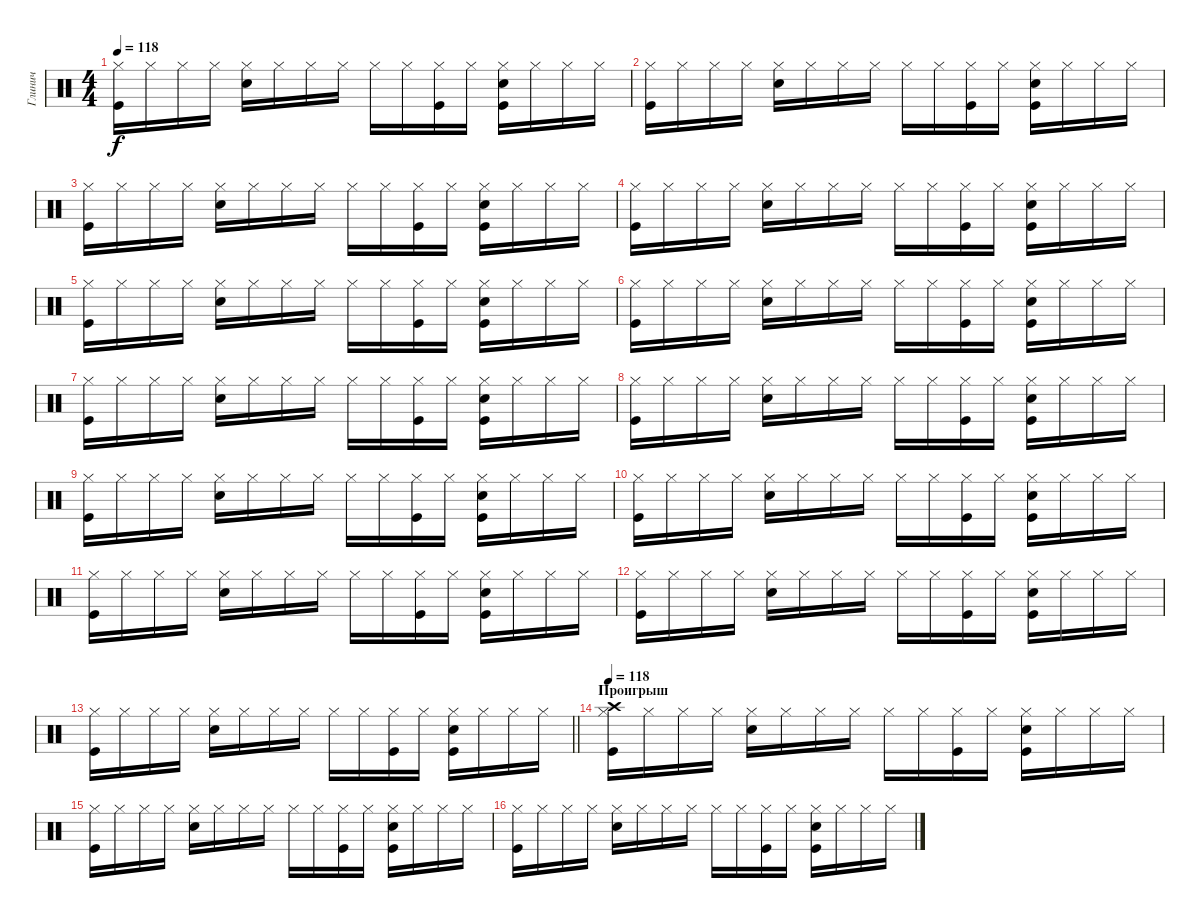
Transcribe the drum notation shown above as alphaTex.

\track ("Глинич" "Глинич") {instrument percussion}
\staff {score}
\articulation defaults
\ts (4 4)
\tempo 118
\clef neutral
\ks c
("Hi-Hat (closed)" "Kick (hit)").16{dy f} "Hi-Hat (closed)".16 "Hi-Hat (closed)".16 "Hi-Hat (closed)".16 ("Hi-Hat (closed)" "Snare (hit) 2").16 "Hi-Hat (closed)".16 "Hi-Hat (closed)".16 "Hi-Hat (closed)".16 "Hi-Hat (closed)".16 "Hi-Hat (closed)".16 ("Hi-Hat (closed)" "Kick (hit)").16 "Hi-Hat (closed)".16 ("Hi-Hat (closed)" "Snare (hit) 2" "Kick (hit)").16 "Hi-Hat (closed)".16 "Hi-Hat (closed)".16 "Hi-Hat (closed)".16 |
("Hi-Hat (closed)" "Kick (hit)").16 "Hi-Hat (closed)".16 "Hi-Hat (closed)".16 "Hi-Hat (closed)".16 ("Hi-Hat (closed)" "Snare (hit) 2").16 "Hi-Hat (closed)".16 "Hi-Hat (closed)".16 "Hi-Hat (closed)".16 "Hi-Hat (closed)".16 "Hi-Hat (closed)".16 ("Hi-Hat (closed)" "Kick (hit)").16 "Hi-Hat (closed)".16 ("Hi-Hat (closed)" "Snare (hit) 2" "Kick (hit)").16 "Hi-Hat (closed)".16 "Hi-Hat (closed)".16 "Hi-Hat (closed)".16 |
("Hi-Hat (closed)" "Kick (hit)").16 "Hi-Hat (closed)".16 "Hi-Hat (closed)".16 "Hi-Hat (closed)".16 ("Hi-Hat (closed)" "Snare (hit) 2").16 "Hi-Hat (closed)".16 "Hi-Hat (closed)".16 "Hi-Hat (closed)".16 "Hi-Hat (closed)".16 "Hi-Hat (closed)".16 ("Hi-Hat (closed)" "Kick (hit)").16 "Hi-Hat (closed)".16 ("Hi-Hat (closed)" "Snare (hit) 2" "Kick (hit)").16 "Hi-Hat (closed)".16 "Hi-Hat (closed)".16 "Hi-Hat (closed)".16 |
("Hi-Hat (closed)" "Kick (hit)").16 "Hi-Hat (closed)".16 "Hi-Hat (closed)".16 "Hi-Hat (closed)".16 ("Hi-Hat (closed)" "Snare (hit) 2").16 "Hi-Hat (closed)".16 "Hi-Hat (closed)".16 "Hi-Hat (closed)".16 "Hi-Hat (closed)".16 "Hi-Hat (closed)".16 ("Hi-Hat (closed)" "Kick (hit)").16 "Hi-Hat (closed)".16 ("Hi-Hat (closed)" "Snare (hit) 2" "Kick (hit)").16 "Hi-Hat (closed)".16 "Hi-Hat (closed)".16 "Hi-Hat (closed)".16 |
("Hi-Hat (closed)" "Kick (hit)").16 "Hi-Hat (closed)".16 "Hi-Hat (closed)".16 "Hi-Hat (closed)".16 ("Hi-Hat (closed)" "Snare (hit) 2").16 "Hi-Hat (closed)".16 "Hi-Hat (closed)".16 "Hi-Hat (closed)".16 "Hi-Hat (closed)".16 "Hi-Hat (closed)".16 ("Hi-Hat (closed)" "Kick (hit)").16 "Hi-Hat (closed)".16 ("Hi-Hat (closed)" "Snare (hit) 2" "Kick (hit)").16 "Hi-Hat (closed)".16 "Hi-Hat (closed)".16 "Hi-Hat (closed)".16 |
("Hi-Hat (closed)" "Kick (hit)").16 "Hi-Hat (closed)".16 "Hi-Hat (closed)".16 "Hi-Hat (closed)".16 ("Hi-Hat (closed)" "Snare (hit) 2").16 "Hi-Hat (closed)".16 "Hi-Hat (closed)".16 "Hi-Hat (closed)".16 "Hi-Hat (closed)".16 "Hi-Hat (closed)".16 ("Hi-Hat (closed)" "Kick (hit)").16 "Hi-Hat (closed)".16 ("Hi-Hat (closed)" "Snare (hit) 2" "Kick (hit)").16 "Hi-Hat (closed)".16 "Hi-Hat (closed)".16 "Hi-Hat (closed)".16 |
("Hi-Hat (closed)" "Kick (hit)").16 "Hi-Hat (closed)".16 "Hi-Hat (closed)".16 "Hi-Hat (closed)".16 ("Hi-Hat (closed)" "Snare (hit) 2").16 "Hi-Hat (closed)".16 "Hi-Hat (closed)".16 "Hi-Hat (closed)".16 "Hi-Hat (closed)".16 "Hi-Hat (closed)".16 ("Hi-Hat (closed)" "Kick (hit)").16 "Hi-Hat (closed)".16 ("Hi-Hat (closed)" "Snare (hit) 2" "Kick (hit)").16 "Hi-Hat (closed)".16 "Hi-Hat (closed)".16 "Hi-Hat (closed)".16 |
("Hi-Hat (closed)" "Kick (hit)").16 "Hi-Hat (closed)".16 "Hi-Hat (closed)".16 "Hi-Hat (closed)".16 ("Hi-Hat (closed)" "Snare (hit) 2").16 "Hi-Hat (closed)".16 "Hi-Hat (closed)".16 "Hi-Hat (closed)".16 "Hi-Hat (closed)".16 "Hi-Hat (closed)".16 ("Hi-Hat (closed)" "Kick (hit)").16 "Hi-Hat (closed)".16 ("Hi-Hat (closed)" "Snare (hit) 2" "Kick (hit)").16 "Hi-Hat (closed)".16 "Hi-Hat (closed)".16 "Hi-Hat (closed)".16 |
("Hi-Hat (closed)" "Kick (hit)").16 "Hi-Hat (closed)".16 "Hi-Hat (closed)".16 "Hi-Hat (closed)".16 ("Hi-Hat (closed)" "Snare (hit) 2").16 "Hi-Hat (closed)".16 "Hi-Hat (closed)".16 "Hi-Hat (closed)".16 "Hi-Hat (closed)".16 "Hi-Hat (closed)".16 ("Hi-Hat (closed)" "Kick (hit)").16 "Hi-Hat (closed)".16 ("Hi-Hat (closed)" "Snare (hit) 2" "Kick (hit)").16 "Hi-Hat (closed)".16 "Hi-Hat (closed)".16 "Hi-Hat (closed)".16 |
("Hi-Hat (closed)" "Kick (hit)").16 "Hi-Hat (closed)".16 "Hi-Hat (closed)".16 "Hi-Hat (closed)".16 ("Hi-Hat (closed)" "Snare (hit) 2").16 "Hi-Hat (closed)".16 "Hi-Hat (closed)".16 "Hi-Hat (closed)".16 "Hi-Hat (closed)".16 "Hi-Hat (closed)".16 ("Hi-Hat (closed)" "Kick (hit)").16 "Hi-Hat (closed)".16 ("Hi-Hat (closed)" "Snare (hit) 2" "Kick (hit)").16 "Hi-Hat (closed)".16 "Hi-Hat (closed)".16 "Hi-Hat (closed)".16 |
("Hi-Hat (closed)" "Kick (hit)").16 "Hi-Hat (closed)".16 "Hi-Hat (closed)".16 "Hi-Hat (closed)".16 ("Hi-Hat (closed)" "Snare (hit) 2").16 "Hi-Hat (closed)".16 "Hi-Hat (closed)".16 "Hi-Hat (closed)".16 "Hi-Hat (closed)".16 "Hi-Hat (closed)".16 ("Hi-Hat (closed)" "Kick (hit)").16 "Hi-Hat (closed)".16 ("Hi-Hat (closed)" "Snare (hit) 2" "Kick (hit)").16 "Hi-Hat (closed)".16 "Hi-Hat (closed)".16 "Hi-Hat (closed)".16 |
("Hi-Hat (closed)" "Kick (hit)").16 "Hi-Hat (closed)".16 "Hi-Hat (closed)".16 "Hi-Hat (closed)".16 ("Hi-Hat (closed)" "Snare (hit) 2").16 "Hi-Hat (closed)".16 "Hi-Hat (closed)".16 "Hi-Hat (closed)".16 "Hi-Hat (closed)".16 "Hi-Hat (closed)".16 ("Hi-Hat (closed)" "Kick (hit)").16 "Hi-Hat (closed)".16 ("Hi-Hat (closed)" "Snare (hit) 2" "Kick (hit)").16 "Hi-Hat (closed)".16 "Hi-Hat (closed)".16 "Hi-Hat (closed)".16 |
\barLineRight lightlight
("Hi-Hat (closed)" "Kick (hit)").16 "Hi-Hat (closed)".16 "Hi-Hat (closed)".16 "Hi-Hat (closed)".16 ("Hi-Hat (closed)" "Snare (hit) 2").16 "Hi-Hat (closed)".16 "Hi-Hat (closed)".16 "Hi-Hat (closed)".16 "Hi-Hat (closed)".16 "Hi-Hat (closed)".16 ("Hi-Hat (closed)" "Kick (hit)").16 "Hi-Hat (closed)".16 ("Hi-Hat (closed)" "Snare (hit) 2" "Kick (hit)").16 "Hi-Hat (closed)".16 "Hi-Hat (closed)".16 "Hi-Hat (closed)".16 |
\section ("" "Проигрыш")
\tempo 118
("Hi-Hat (closed)" "Kick (hit)" "Crash high (hit)").16 "Hi-Hat (closed)".16 "Hi-Hat (closed)".16 "Hi-Hat (closed)".16 ("Hi-Hat (closed)" "Snare (hit) 2").16 "Hi-Hat (closed)".16 "Hi-Hat (closed)".16 "Hi-Hat (closed)".16 "Hi-Hat (closed)".16 "Hi-Hat (closed)".16 ("Hi-Hat (closed)" "Kick (hit)").16 "Hi-Hat (closed)".16 ("Hi-Hat (closed)" "Snare (hit) 2" "Kick (hit)").16 "Hi-Hat (closed)".16 "Hi-Hat (closed)".16 "Hi-Hat (closed)".16 |
("Hi-Hat (closed)" "Kick (hit)").16 "Hi-Hat (closed)".16 "Hi-Hat (closed)".16 "Hi-Hat (closed)".16 ("Hi-Hat (closed)" "Snare (hit) 2").16 "Hi-Hat (closed)".16 "Hi-Hat (closed)".16 "Hi-Hat (closed)".16 "Hi-Hat (closed)".16 "Hi-Hat (closed)".16 ("Hi-Hat (closed)" "Kick (hit)").16 "Hi-Hat (closed)".16 ("Hi-Hat (closed)" "Snare (hit) 2" "Kick (hit)").16 "Hi-Hat (closed)".16 "Hi-Hat (closed)".16 "Hi-Hat (closed)".16 |
("Hi-Hat (closed)" "Kick (hit)").16 "Hi-Hat (closed)".16 "Hi-Hat (closed)".16 "Hi-Hat (closed)".16 ("Hi-Hat (closed)" "Snare (hit) 2").16 "Hi-Hat (closed)".16 "Hi-Hat (closed)".16 "Hi-Hat (closed)".16 "Hi-Hat (closed)".16 "Hi-Hat (closed)".16 ("Hi-Hat (closed)" "Kick (hit)").16 "Hi-Hat (closed)".16 ("Hi-Hat (closed)" "Snare (hit) 2" "Kick (hit)").16 "Hi-Hat (closed)".16 "Hi-Hat (closed)".16 "Hi-Hat (closed)".16
